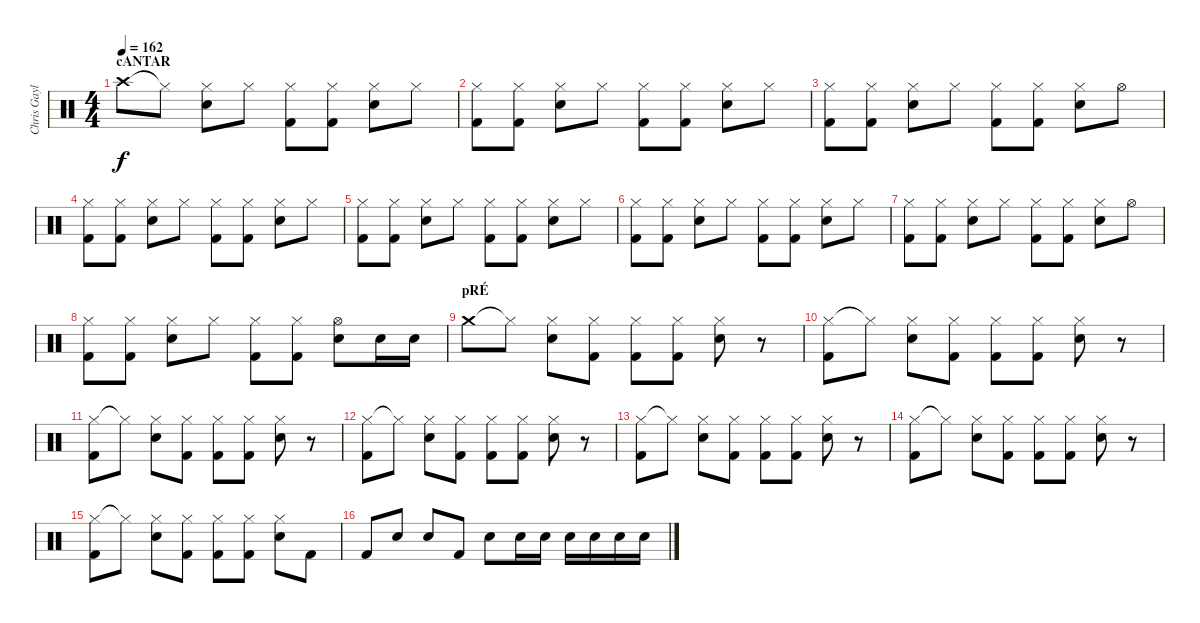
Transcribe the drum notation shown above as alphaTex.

\track ("Chris Gaylor" "Chris Gayl") {instrument percussion}
\staff {score}
\articulation defaults
\ts (4 4)
\section ("" "cANTAR")
\tempo 162
\clef neutral
\ks c "Crash high (hit)".8{dy f} "Hi-Hat (closed)"{t}.8
("Hi-Hat (closed)" "Snare (hit) 2").8 "Hi-Hat (closed)".8 ("Hi-Hat (closed)" "Kick (hit) 2").8 ("Hi-Hat (closed)" "Kick (hit) 2").8 ("Hi-Hat (closed)" "Snare (hit) 2").8 "Hi-Hat (closed)".8 |
("Hi-Hat (closed)" "Kick (hit) 2").8 ("Hi-Hat (closed)" "Kick (hit) 2").8 ("Hi-Hat (closed)" "Snare (hit) 2").8 "Hi-Hat (closed)".8 ("Hi-Hat (closed)" "Kick (hit) 2").8 ("Hi-Hat (closed)" "Kick (hit) 2").8 ("Hi-Hat (closed)" "Snare (hit) 2").8 "Hi-Hat (closed)".8 |
("Hi-Hat (closed)" "Kick (hit) 2").8 ("Hi-Hat (closed)" "Kick (hit) 2").8 ("Hi-Hat (closed)" "Snare (hit) 2").8 "Hi-Hat (closed)".8 ("Hi-Hat (closed)" "Kick (hit) 2").8 ("Hi-Hat (closed)" "Kick (hit) 2").8 ("Hi-Hat (closed)" "Snare (hit) 2").8 "Hi-Hat (open)".8 |
("Hi-Hat (closed)" "Kick (hit) 2").8 ("Hi-Hat (closed)" "Kick (hit) 2").8 ("Hi-Hat (closed)" "Snare (hit) 2").8 "Hi-Hat (closed)".8 ("Hi-Hat (closed)" "Kick (hit) 2").8 ("Hi-Hat (closed)" "Kick (hit) 2").8 ("Hi-Hat (closed)" "Snare (hit) 2").8 "Hi-Hat (closed)".8 |
("Hi-Hat (closed)" "Kick (hit) 2").8 ("Hi-Hat (closed)" "Kick (hit) 2").8 ("Hi-Hat (closed)" "Snare (hit) 2").8 "Hi-Hat (closed)".8 ("Hi-Hat (closed)" "Kick (hit) 2").8 ("Hi-Hat (closed)" "Kick (hit) 2").8 ("Hi-Hat (closed)" "Snare (hit) 2").8 "Hi-Hat (closed)".8 |
("Hi-Hat (closed)" "Kick (hit) 2").8 ("Hi-Hat (closed)" "Kick (hit) 2").8 ("Hi-Hat (closed)" "Snare (hit) 2").8 "Hi-Hat (closed)".8 ("Hi-Hat (closed)" "Kick (hit) 2").8 ("Hi-Hat (closed)" "Kick (hit) 2").8 ("Hi-Hat (closed)" "Snare (hit) 2").8 "Hi-Hat (closed)".8 |
("Hi-Hat (closed)" "Kick (hit) 2").8 ("Hi-Hat (closed)" "Kick (hit) 2").8 ("Hi-Hat (closed)" "Snare (hit) 2").8 "Hi-Hat (closed)".8 ("Hi-Hat (closed)" "Kick (hit) 2").8 ("Hi-Hat (closed)" "Kick (hit) 2").8 ("Hi-Hat (closed)" "Snare (hit) 2").8 "Hi-Hat (open)".8 |
("Hi-Hat (closed)" "Kick (hit) 2").8 ("Hi-Hat (closed)" "Kick (hit) 2").8 ("Hi-Hat (closed)" "Snare (hit) 2").8 "Hi-Hat (closed)".8 ("Hi-Hat (closed)" "Kick (hit) 2").8 ("Hi-Hat (closed)" "Kick (hit) 2").8 ("Hi-Hat (open)" "Snare (hit) 2").8 "Electric Snare (hit)".16 "Electric Snare (hit)".16 |
\section ("" "pRÉ")
"Crash medium (hit)".8 "Hi-Hat (closed)"{t}.8 ("Hi-Hat (closed)" "Snare (hit) 2").8 ("Hi-Hat (closed)" "Kick (hit) 2").8 ("Hi-Hat (closed)" "Kick (hit) 2").8 ("Hi-Hat (closed)" "Kick (hit) 2").8 ("Hi-Hat (closed)" "Snare (hit) 2").8 r.8 |
("Hi-Hat (closed)" "Kick (hit) 2").8 "Hi-Hat (closed)"{t}.8 ("Hi-Hat (closed)" "Snare (hit) 2").8 ("Hi-Hat (closed)" "Kick (hit) 2").8 ("Hi-Hat (closed)" "Kick (hit) 2").8 ("Hi-Hat (closed)" "Kick (hit) 2").8 ("Hi-Hat (closed)" "Snare (hit) 2").8 r.8 |
("Hi-Hat (closed)" "Kick (hit) 2").8 "Hi-Hat (closed)"{t}.8 ("Hi-Hat (closed)" "Snare (hit) 2").8 ("Hi-Hat (closed)" "Kick (hit) 2").8 ("Hi-Hat (closed)" "Kick (hit) 2").8 ("Hi-Hat (closed)" "Kick (hit) 2").8 ("Hi-Hat (closed)" "Snare (hit) 2").8 r.8 |
("Hi-Hat (closed)" "Kick (hit) 2").8 "Hi-Hat (closed)"{t}.8 ("Hi-Hat (closed)" "Snare (hit) 2").8 ("Hi-Hat (closed)" "Kick (hit) 2").8 ("Hi-Hat (closed)" "Kick (hit) 2").8 ("Hi-Hat (closed)" "Kick (hit) 2").8 ("Hi-Hat (closed)" "Snare (hit) 2").8 r.8 |
("Hi-Hat (closed)" "Kick (hit) 2").8 "Hi-Hat (closed)"{t}.8 ("Hi-Hat (closed)" "Snare (hit) 2").8 ("Hi-Hat (closed)" "Kick (hit) 2").8 ("Hi-Hat (closed)" "Kick (hit) 2").8 ("Hi-Hat (closed)" "Kick (hit) 2").8 ("Hi-Hat (closed)" "Snare (hit) 2").8 r.8 |
("Hi-Hat (closed)" "Kick (hit) 2").8 "Hi-Hat (closed)"{t}.8 ("Hi-Hat (closed)" "Snare (hit) 2").8 ("Hi-Hat (closed)" "Kick (hit) 2").8 ("Hi-Hat (closed)" "Kick (hit) 2").8 ("Hi-Hat (closed)" "Kick (hit) 2").8 ("Hi-Hat (closed)" "Snare (hit) 2").8 r.8 |
("Hi-Hat (closed)" "Kick (hit) 2").8 "Hi-Hat (closed)"{t}.8 ("Hi-Hat (closed)" "Snare (hit) 2").8 ("Hi-Hat (closed)" "Kick (hit) 2").8 ("Hi-Hat (closed)" "Kick (hit) 2").8 ("Hi-Hat (closed)" "Kick (hit) 2").8 ("Hi-Hat (closed)" "Snare (hit) 2").8 "Kick (hit) 2".8 |
"Kick (hit) 2".8 "Snare (hit) 2".8 "Snare (hit) 2".8 "Kick (hit) 2".8 "Snare (hit) 2".8 "Snare (hit) 2".16 "Snare (hit) 2".16 "Snare (hit) 2".16 "Snare (hit) 2".16 "Snare (hit) 2".16 "Snare (hit) 2".16
